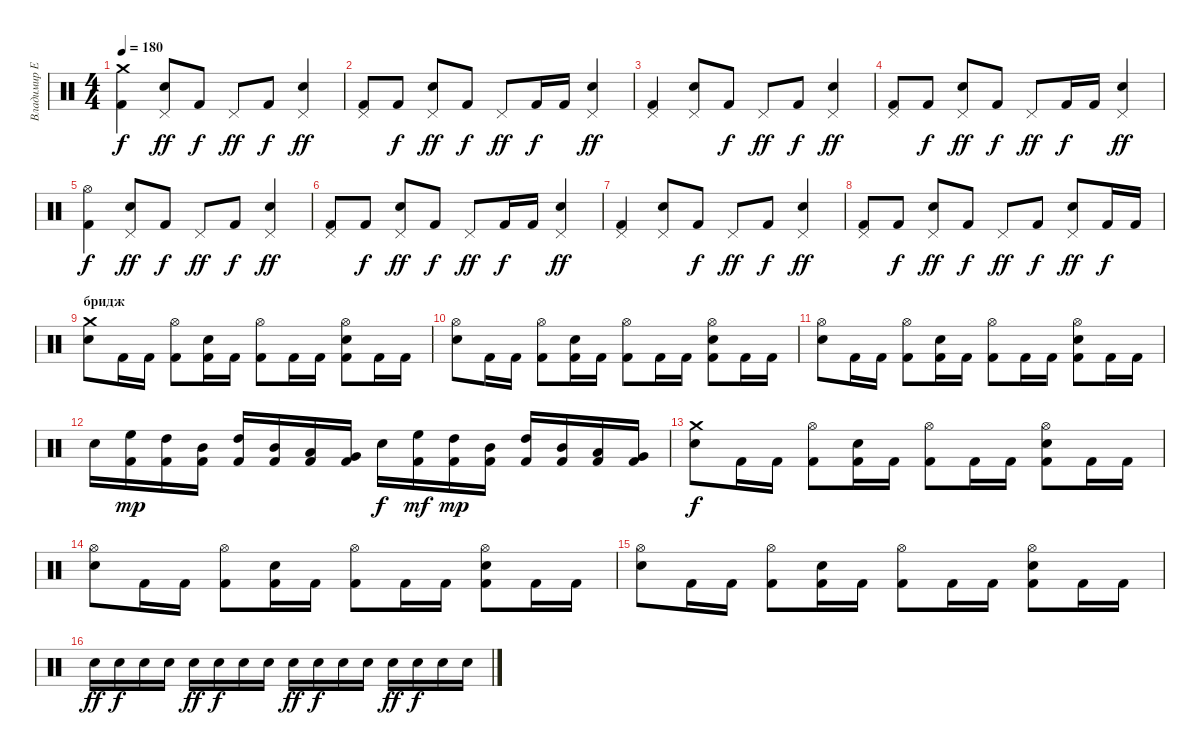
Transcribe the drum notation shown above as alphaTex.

\track ("Владимир Ермаков" "Владимир Е") {instrument percussion}
\staff {score}
\articulation defaults
\ts (4 4)
\tempo 180
\clef neutral
\ks c
("Crash medium (hit)" "Kick (hit) 2").4{dy f} ("Pedal Hi-Hat (hit)" "Electric Snare (hit)").8{dy ff} "Kick (hit) 2".8{dy f} "Pedal Hi-Hat (hit)".8{dy ff} "Kick (hit) 2".8{dy f} ("Pedal Hi-Hat (hit)" "Electric Snare (hit)").4{dy ff} |
("Pedal Hi-Hat (hit)" "Kick (hit) 2").8 "Kick (hit) 2".8{dy f} ("Pedal Hi-Hat (hit)" "Electric Snare (hit)").8{dy ff} "Kick (hit) 2".8{dy f} "Pedal Hi-Hat (hit)".8{dy ff} "Kick (hit) 2".16{dy f} "Kick (hit) 2".16 ("Pedal Hi-Hat (hit)" "Electric Snare (hit)").4{dy ff} |
("Pedal Hi-Hat (hit)" "Kick (hit) 2").4 ("Pedal Hi-Hat (hit)" "Electric Snare (hit)").8 "Kick (hit) 2".8{dy f} "Pedal Hi-Hat (hit)".8{dy ff} "Kick (hit) 2".8{dy f} ("Pedal Hi-Hat (hit)" "Electric Snare (hit)").4{dy ff} |
("Pedal Hi-Hat (hit)" "Kick (hit) 2").8 "Kick (hit) 2".8{dy f} ("Pedal Hi-Hat (hit)" "Electric Snare (hit)").8{dy ff} "Kick (hit) 2".8{dy f} "Pedal Hi-Hat (hit)".8{dy ff} "Kick (hit) 2".16{dy f} "Kick (hit) 2".16 ("Pedal Hi-Hat (hit)" "Electric Snare (hit)").4{dy ff} |
("Hi-Hat (open)" "Kick (hit) 2").4{dy f} ("Pedal Hi-Hat (hit)" "Electric Snare (hit)").8{dy ff} "Kick (hit) 2".8{dy f} "Pedal Hi-Hat (hit)".8{dy ff} "Kick (hit) 2".8{dy f} ("Pedal Hi-Hat (hit)" "Electric Snare (hit)").4{dy ff} |
("Pedal Hi-Hat (hit)" "Kick (hit) 2").8 "Kick (hit) 2".8{dy f} ("Pedal Hi-Hat (hit)" "Electric Snare (hit)").8{dy ff} "Kick (hit) 2".8{dy f} "Pedal Hi-Hat (hit)".8{dy ff} "Kick (hit) 2".16{dy f} "Kick (hit) 2".16 ("Pedal Hi-Hat (hit)" "Electric Snare (hit)").4{dy ff} |
("Pedal Hi-Hat (hit)" "Kick (hit) 2").4 ("Pedal Hi-Hat (hit)" "Electric Snare (hit)").8 "Kick (hit) 2".8{dy f} "Pedal Hi-Hat (hit)".8{dy ff} "Kick (hit) 2".8{dy f} ("Pedal Hi-Hat (hit)" "Electric Snare (hit)").4{dy ff} |
("Pedal Hi-Hat (hit)" "Kick (hit) 2").8 "Kick (hit) 2".8{dy f} ("Pedal Hi-Hat (hit)" "Electric Snare (hit)").8{dy ff} "Kick (hit) 2".8{dy f} "Pedal Hi-Hat (hit)".8{dy ff} "Kick (hit) 2".8{dy f} ("Pedal Hi-Hat (hit)" "Electric Snare (hit)").8{dy ff} "Kick (hit) 2".16{dy f} "Kick (hit) 2".16 |
\section ("" "бридж")
("Electric Snare (hit)" "Crash medium (hit)").8 "Kick (hit) 2".16 "Kick (hit) 2".16 ("Kick (hit) 2" "Hi-Hat (open)").8 ("Electric Snare (hit)" "Kick (hit) 2").16 "Kick (hit) 2".16 ("Kick (hit) 2" "Hi-Hat (open)").8 "Kick (hit) 2".16 "Kick (hit) 2".16 ("Electric Snare (hit)" "Kick (hit) 2" "Hi-Hat (open)").8 "Kick (hit) 2".16 "Kick (hit) 2".16 |
("Electric Snare (hit)" "Hi-Hat (open)").8 "Kick (hit) 2".16 "Kick (hit) 2".16 ("Kick (hit) 2" "Hi-Hat (open)").8 ("Electric Snare (hit)" "Kick (hit) 2").16 "Kick (hit) 2".16 ("Kick (hit) 2" "Hi-Hat (open)").8 "Kick (hit) 2".16 "Kick (hit) 2".16 ("Electric Snare (hit)" "Kick (hit) 2" "Hi-Hat (open)").8 "Kick (hit) 2".16 "Kick (hit) 2".16 |
("Electric Snare (hit)" "Hi-Hat (open)").8 "Kick (hit) 2".16 "Kick (hit) 2".16 ("Kick (hit) 2" "Hi-Hat (open)").8 ("Electric Snare (hit)" "Kick (hit) 2").16 "Kick (hit) 2".16 ("Kick (hit) 2" "Hi-Hat (open)").8 "Kick (hit) 2".16 "Kick (hit) 2".16 ("Electric Snare (hit)" "Kick (hit) 2" "Hi-Hat (open)").8 "Kick (hit) 2".16 "Kick (hit) 2".16 |
"Electric Snare (hit)".16 ("High Floor Tom (hit)" "Kick (hit) 2").16{dy mp} ("High Tom (hit)" "Kick (hit) 2").16 ("Mid Tom (hit)" "Kick (hit) 2").16 ("High Tom (hit)" "Kick (hit) 2").16 ("Mid Tom (hit)" "Kick (hit) 2").16 ("Low Tom (hit)" "Kick (hit) 2").16 ("Very Low Tom (hit)" "Kick (hit) 2").16 "Electric Snare (hit)".16{dy f} ("High Floor Tom (hit)" "Kick (hit) 2").16{dy mf} ("High Tom (hit)" "Kick (hit) 2").16{dy mp} ("Mid Tom (hit)" "Kick (hit) 2").16 ("High Tom (hit)" "Kick (hit) 2").16 ("Mid Tom (hit)" "Kick (hit) 2").16 ("Low Tom (hit)" "Kick (hit) 2").16 ("Very Low Tom (hit)" "Kick (hit) 2").16 |
("Electric Snare (hit)" "Crash medium (hit)").8{dy f} "Kick (hit) 2".16 "Kick (hit) 2".16 ("Kick (hit) 2" "Hi-Hat (open)").8 ("Electric Snare (hit)" "Kick (hit) 2").16 "Kick (hit) 2".16 ("Kick (hit) 2" "Hi-Hat (open)").8 "Kick (hit) 2".16 "Kick (hit) 2".16 ("Electric Snare (hit)" "Kick (hit) 2" "Hi-Hat (open)").8 "Kick (hit) 2".16 "Kick (hit) 2".16 |
("Electric Snare (hit)" "Hi-Hat (open)").8 "Kick (hit) 2".16 "Kick (hit) 2".16 ("Kick (hit) 2" "Hi-Hat (open)").8 ("Electric Snare (hit)" "Kick (hit) 2").16 "Kick (hit) 2".16 ("Kick (hit) 2" "Hi-Hat (open)").8 "Kick (hit) 2".16 "Kick (hit) 2".16 ("Electric Snare (hit)" "Kick (hit) 2" "Hi-Hat (open)").8 "Kick (hit) 2".16 "Kick (hit) 2".16 |
("Electric Snare (hit)" "Hi-Hat (open)").8 "Kick (hit) 2".16 "Kick (hit) 2".16 ("Kick (hit) 2" "Hi-Hat (open)").8 ("Electric Snare (hit)" "Kick (hit) 2").16 "Kick (hit) 2".16 ("Kick (hit) 2" "Hi-Hat (open)").8 "Kick (hit) 2".16 "Kick (hit) 2".16 ("Electric Snare (hit)" "Kick (hit) 2" "Hi-Hat (open)").8 "Kick (hit) 2".16 "Kick (hit) 2".16 |
"Electric Snare (hit)".16{dy ff} "Electric Snare (hit)".16{dy f} "Electric Snare (hit)".16 "Electric Snare (hit)".16 "Electric Snare (hit)".16{dy ff} "Electric Snare (hit)".16{dy f} "Electric Snare (hit)".16 "Electric Snare (hit)".16 "Electric Snare (hit)".16{dy ff} "Electric Snare (hit)".16{dy f} "Electric Snare (hit)".16 "Electric Snare (hit)".16 "Electric Snare (hit)".16{dy ff} "Electric Snare (hit)".16{dy f} "Electric Snare (hit)".16 "Electric Snare (hit)".16
